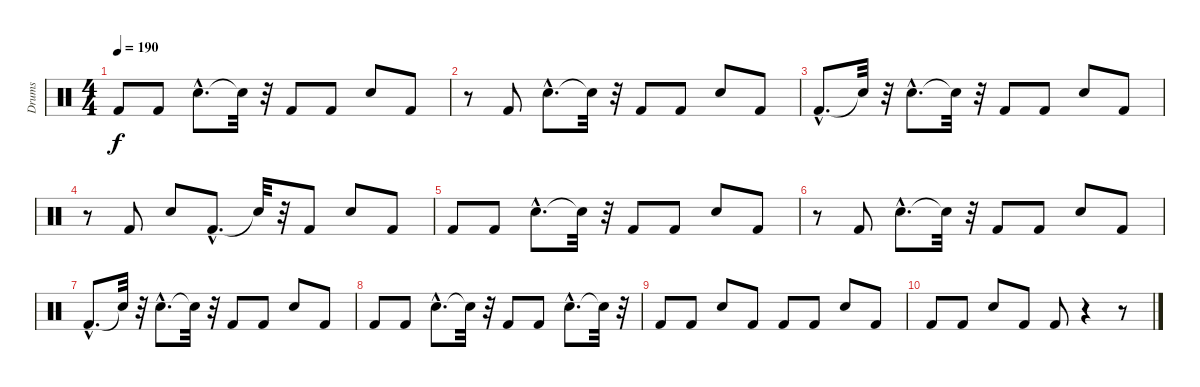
\track ("Drums" "Drums") {instrument percussion}
\staff {score}
\articulation defaults
\ts (4 4)
\tempo 190
\clef neutral
\ks c "Kick (hit) 2".8{dy f} "Kick (hit) 2".8 "Electric Snare (hit)"{hac}.8{d} "Snare (hit)"{t}.32
r.32 "Kick (hit) 2".8 "Kick (hit) 2".8 "Electric Snare (hit)".8 "Kick (hit) 2".8 |
r.8 "Kick (hit) 2".8 "Electric Snare (hit)"{hac}.8{d} "Snare (hit)"{t}.32 r.32 "Kick (hit) 2".8 "Kick (hit) 2".8 "Electric Snare (hit)".8 "Kick (hit) 2".8 |
"Kick (hit) 2"{hac}.8{d} "Snare (hit)"{t}.32 r.32 "Electric Snare (hit)"{hac}.8{d} "Snare (hit)"{t}.32 r.32 "Kick (hit) 2".8 "Kick (hit) 2".8 "Electric Snare (hit)".8 "Kick (hit) 2".8 |
r.8 "Kick (hit) 2".8 "Electric Snare (hit)".8 "Kick (hit) 2"{hac}.8{d} "Snare (hit)"{t}.32 r.32 "Kick (hit) 2".8 "Electric Snare (hit)".8 "Kick (hit) 2".8 |
"Kick (hit) 2".8 "Kick (hit) 2".8 "Electric Snare (hit)"{hac}.8{d} "Snare (hit)"{t}.32 r.32 "Kick (hit) 2".8 "Kick (hit) 2".8 "Electric Snare (hit)".8 "Kick (hit) 2".8 |
r.8 "Kick (hit) 2".8 "Electric Snare (hit)"{hac}.8{d} "Snare (hit)"{t}.32 r.32 "Kick (hit) 2".8 "Kick (hit) 2".8 "Electric Snare (hit)".8 "Kick (hit) 2".8 |
"Kick (hit) 2"{hac}.8{d} "Snare (hit)"{t}.32 r.32 "Electric Snare (hit)"{hac}.8{d} "Snare (hit)"{t}.32 r.32 "Kick (hit) 2".8 "Kick (hit) 2".8 "Electric Snare (hit)".8 "Kick (hit) 2".8 |
"Kick (hit) 2".8 "Kick (hit) 2".8 "Electric Snare (hit)"{hac}.8{d} "Snare (hit)"{t}.32 r.32 "Kick (hit) 2".8 "Kick (hit) 2".8 "Electric Snare (hit)"{hac}.8{d} "Snare (hit)"{t}.32 r.32 |
"Kick (hit) 2".8 "Kick (hit) 2".8 "Electric Snare (hit)".8 "Kick (hit) 2".8 "Kick (hit) 2".8 "Kick (hit) 2".8 "Electric Snare (hit)".8 "Kick (hit) 2".8 |
"Kick (hit) 2".8 "Kick (hit) 2".8 "Electric Snare (hit)".8 "Kick (hit) 2".8 "Kick (hit) 2".8 r.4 r.8
